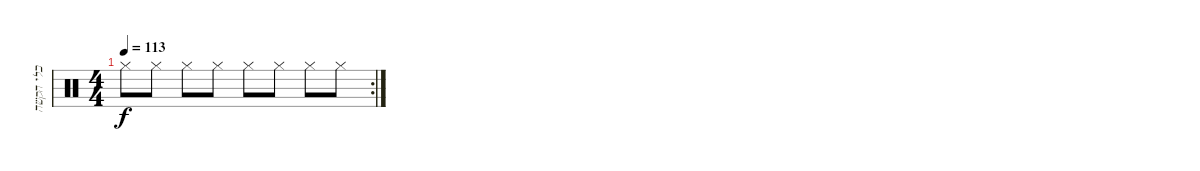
\track ("כלי הקשה" "כלי הקשה") {instrument percussion}
\staff {score}
\articulation defaults
\rc 2
\ts (4 4)
\tempo 113
\clef neutral
\ks c "Hi-Hat (closed)".8{dy f} "Hi-Hat (closed)".8 "Hi-Hat (closed)".8 "Hi-Hat (closed)".8 "Hi-Hat (closed)".8 "Hi-Hat (closed)".8 "Hi-Hat (closed)".8 "Hi-Hat (closed)".8
